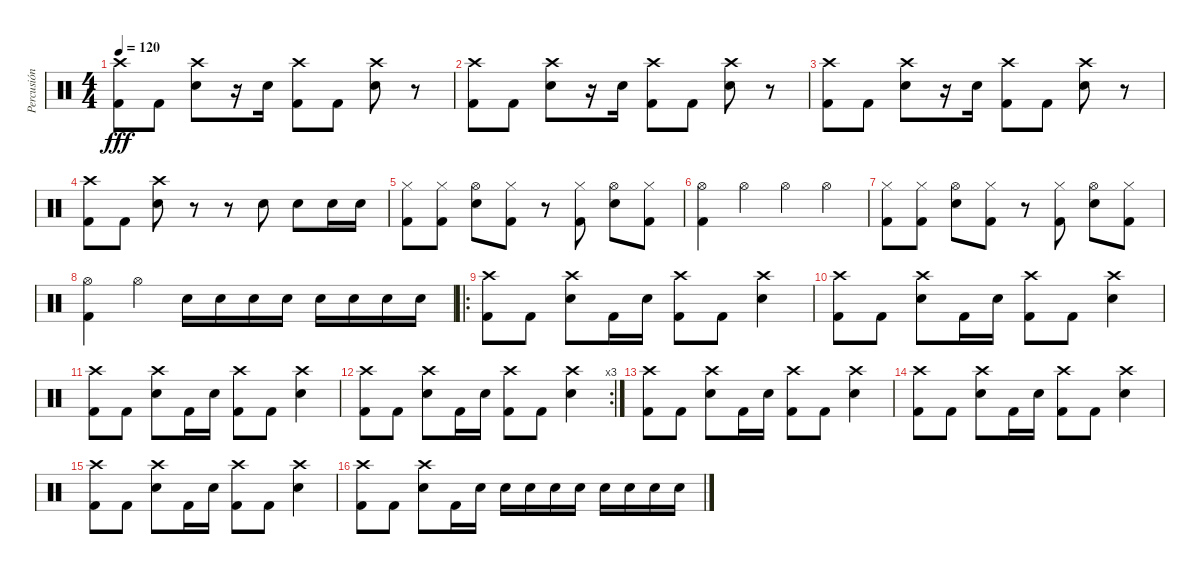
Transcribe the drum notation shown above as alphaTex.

\track ("Percusión" "Percusión") {instrument percussion}
\staff {score}
\articulation defaults
\ts (4 4)
\tempo 120
\clef neutral
\ks c
("Crash high (hit)" "Kick (hit) 2").8{dy fff} "Kick (hit) 2".8 ("Crash high (hit)" "Snare (hit) 2").8 r.16 "Snare (hit) 2".16 ("Crash high (hit)" "Kick (hit) 2").8 "Kick (hit) 2".8 ("Crash high (hit)" "Snare (hit) 2").8 r.8 |
("Crash high (hit)" "Kick (hit) 2").8 "Kick (hit) 2".8 ("Crash high (hit)" "Snare (hit) 2").8 r.16 "Snare (hit) 2".16 ("Crash high (hit)" "Kick (hit) 2").8 "Kick (hit) 2".8 ("Crash high (hit)" "Snare (hit) 2").8 r.8 |
("Crash high (hit)" "Kick (hit) 2").8 "Kick (hit) 2".8 ("Crash high (hit)" "Snare (hit) 2").8 r.16 "Snare (hit) 2".16 ("Crash high (hit)" "Kick (hit) 2").8 "Kick (hit) 2".8 ("Crash high (hit)" "Snare (hit) 2").8 r.8 |
("Crash high (hit)" "Kick (hit) 2").8 "Kick (hit) 2".8 ("Crash high (hit)" "Snare (hit) 2").8 r.8 r.8 "Snare (hit) 2".8 "Snare (hit) 2".8 "Snare (hit) 2".16 "Snare (hit) 2".16 |
("Hi-Hat (closed)" "Kick (hit) 2").8 ("Hi-Hat (closed)" "Kick (hit) 2").8 ("Hi-Hat (open)" "Snare (hit) 2").8 ("Hi-Hat (closed)" "Kick (hit) 2").8 r.8 ("Hi-Hat (closed)" "Kick (hit) 2").8 ("Hi-Hat (open)" "Snare (hit) 2").8 ("Hi-Hat (closed)" "Kick (hit) 2").8 |
("Hi-Hat (open)" "Kick (hit) 2").4 "Hi-Hat (open)".4 "Hi-Hat (open)".4 "Hi-Hat (open)".4 |
("Hi-Hat (closed)" "Kick (hit) 2").8 ("Hi-Hat (closed)" "Kick (hit) 2").8 ("Hi-Hat (open)" "Snare (hit) 2").8 ("Hi-Hat (closed)" "Kick (hit) 2").8 r.8 ("Hi-Hat (closed)" "Kick (hit) 2").8 ("Hi-Hat (open)" "Snare (hit) 2").8 ("Hi-Hat (closed)" "Kick (hit) 2").8 |
("Hi-Hat (open)" "Kick (hit) 2").4 "Hi-Hat (open)".4 "Snare (hit) 2".16 "Snare (hit) 2".16 "Snare (hit) 2".16 "Snare (hit) 2".16 "Snare (hit) 2".16 "Snare (hit) 2".16 "Snare (hit) 2".16 "Snare (hit) 2".16 |
\ro
("Crash high (hit)" "Kick (hit) 2").8 "Kick (hit) 2".8 ("Crash high (hit)" "Snare (hit) 2").8 "Kick (hit) 2".16 "Snare (hit) 2".16 ("Crash high (hit)" "Kick (hit) 2").8 "Kick (hit) 2".8 ("Crash high (hit)" "Snare (hit) 2").4 |
("Crash high (hit)" "Kick (hit) 2").8 "Kick (hit) 2".8 ("Crash high (hit)" "Snare (hit) 2").8 "Kick (hit) 2".16 "Snare (hit) 2".16 ("Crash high (hit)" "Kick (hit) 2").8 "Kick (hit) 2".8 ("Crash high (hit)" "Snare (hit) 2").4 |
("Crash high (hit)" "Kick (hit) 2").8 "Kick (hit) 2".8 ("Crash high (hit)" "Snare (hit) 2").8 "Kick (hit) 2".16 "Snare (hit) 2".16 ("Crash high (hit)" "Kick (hit) 2").8 "Kick (hit) 2".8 ("Crash high (hit)" "Snare (hit) 2").4 |
\rc 3
("Crash high (hit)" "Kick (hit) 2").8 "Kick (hit) 2".8 ("Crash high (hit)" "Snare (hit) 2").8 "Kick (hit) 2".16 "Snare (hit) 2".16 ("Crash high (hit)" "Kick (hit) 2").8 "Kick (hit) 2".8 ("Crash high (hit)" "Snare (hit) 2").4 |
("Crash high (hit)" "Kick (hit) 2").8 "Kick (hit) 2".8 ("Crash high (hit)" "Snare (hit) 2").8 "Kick (hit) 2".16 "Snare (hit) 2".16 ("Crash high (hit)" "Kick (hit) 2").8 "Kick (hit) 2".8 ("Crash high (hit)" "Snare (hit) 2").4 |
("Crash high (hit)" "Kick (hit) 2").8 "Kick (hit) 2".8 ("Crash high (hit)" "Snare (hit) 2").8 "Kick (hit) 2".16 "Snare (hit) 2".16 ("Crash high (hit)" "Kick (hit) 2").8 "Kick (hit) 2".8 ("Crash high (hit)" "Snare (hit) 2").4 |
("Crash high (hit)" "Kick (hit) 2").8 "Kick (hit) 2".8 ("Crash high (hit)" "Snare (hit) 2").8 "Kick (hit) 2".16 "Snare (hit) 2".16 ("Crash high (hit)" "Kick (hit) 2").8 "Kick (hit) 2".8 ("Crash high (hit)" "Snare (hit) 2").4 |
("Crash high (hit)" "Kick (hit) 2").8 "Kick (hit) 2".8 ("Crash high (hit)" "Snare (hit) 2").8 "Kick (hit) 2".16 "Snare (hit) 2".16 "Snare (hit) 2".16 "Snare (hit) 2".16 "Snare (hit) 2".16 "Snare (hit) 2".16 "Snare (hit) 2".16 "Snare (hit) 2".16 "Snare (hit) 2".16 "Snare (hit) 2".16
